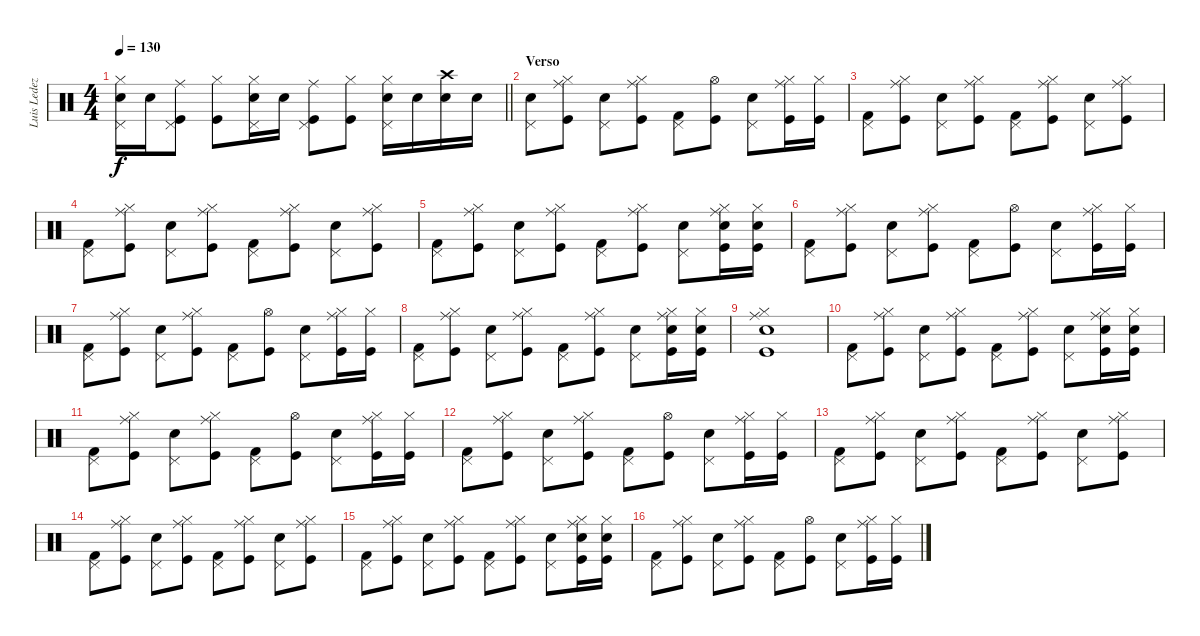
\track ("Luis Ledezma (bateria)" "Luis Ledez") {instrument percussion}
\staff {score}
\articulation defaults
\ts (4 4)
\tempo 130
\clef neutral
\barLineRight lightlight
\ks c
("Hi-Hat (closed)" "Pedal Hi-Hat (hit)" "Snare (hit) 2").16{dy f} "Snare (hit) 2".16 ("Ride (middle)" "Pedal Hi-Hat (hit)" "Kick (hit)").8 ("Hi-Hat (closed)" "Kick (hit)").8 ("Hi-Hat (closed)" "Pedal Hi-Hat (hit)" "Snare (hit) 2").16 "Snare (hit) 2".16 ("Ride (middle)" "Pedal Hi-Hat (hit)" "Kick (hit)").8 ("Hi-Hat (closed)" "Kick (hit)").8 ("Hi-Hat (closed)" "Pedal Hi-Hat (hit)" "Snare (hit) 2").16 "Snare (hit) 2".16 ("Crash high (hit)" "Snare (hit) 2").16 "Snare (hit) 2".16 |
\section ("" "Verso")
("Pedal Hi-Hat (hit)" "Snare (hit) 2").8 ("Ride (middle)" "Hi-Hat (closed)" "Kick (hit)").8 ("Pedal Hi-Hat (hit)" "Snare (hit) 2").8 ("Ride (middle)" "Hi-Hat (closed)" "Kick (hit)").8 ("Pedal Hi-Hat (hit)" "Kick (hit) 2").8 ("Hi-Hat (open)" "Kick (hit)").8 ("Pedal Hi-Hat (hit)" "Snare (hit) 2").8 ("Ride (middle)" "Hi-Hat (closed)" "Kick (hit)").16 ("Hi-Hat (closed)" "Kick (hit)").16 |
("Pedal Hi-Hat (hit)" "Kick (hit) 2").8 ("Ride (middle)" "Hi-Hat (closed)" "Kick (hit)").8 ("Pedal Hi-Hat (hit)" "Snare (hit) 2").8 ("Ride (middle)" "Hi-Hat (closed)" "Kick (hit)").8 ("Pedal Hi-Hat (hit)" "Kick (hit) 2").8 ("Ride (middle)" "Hi-Hat (closed)" "Kick (hit)").8 ("Pedal Hi-Hat (hit)" "Snare (hit) 2").8 ("Ride (middle)" "Hi-Hat (closed)" "Kick (hit)").8 |
("Pedal Hi-Hat (hit)" "Kick (hit) 2").8 ("Ride (middle)" "Hi-Hat (closed)" "Kick (hit)").8 ("Pedal Hi-Hat (hit)" "Snare (hit) 2").8 ("Ride (middle)" "Hi-Hat (closed)" "Kick (hit)").8 ("Pedal Hi-Hat (hit)" "Kick (hit) 2").8 ("Ride (middle)" "Hi-Hat (closed)" "Kick (hit)").8 ("Pedal Hi-Hat (hit)" "Snare (hit) 2").8 ("Ride (middle)" "Hi-Hat (closed)" "Kick (hit)").8 |
("Pedal Hi-Hat (hit)" "Kick (hit) 2").8 ("Ride (middle)" "Hi-Hat (closed)" "Kick (hit)").8 ("Pedal Hi-Hat (hit)" "Snare (hit) 2").8 ("Ride (middle)" "Hi-Hat (closed)" "Kick (hit)").8 ("Pedal Hi-Hat (hit)" "Kick (hit) 2").8 ("Ride (middle)" "Hi-Hat (closed)" "Kick (hit)").8 ("Pedal Hi-Hat (hit)" "Snare (hit) 2").8 ("Ride (middle)" "Hi-Hat (closed)" "Snare (hit) 2" "Kick (hit)").16 ("Hi-Hat (closed)" "Snare (hit) 2" "Kick (hit)").16 |
("Pedal Hi-Hat (hit)" "Kick (hit) 2").8 ("Ride (middle)" "Hi-Hat (closed)" "Kick (hit)").8 ("Pedal Hi-Hat (hit)" "Snare (hit) 2").8 ("Ride (middle)" "Hi-Hat (closed)" "Kick (hit)").8 ("Pedal Hi-Hat (hit)" "Kick (hit) 2").8 ("Hi-Hat (open)" "Kick (hit)").8 ("Pedal Hi-Hat (hit)" "Snare (hit) 2").8 ("Ride (middle)" "Hi-Hat (closed)" "Kick (hit)").16 ("Hi-Hat (closed)" "Kick (hit)").16 |
("Pedal Hi-Hat (hit)" "Kick (hit) 2").8 ("Ride (middle)" "Hi-Hat (closed)" "Kick (hit)").8 ("Pedal Hi-Hat (hit)" "Snare (hit) 2").8 ("Ride (middle)" "Hi-Hat (closed)" "Kick (hit)").8 ("Pedal Hi-Hat (hit)" "Kick (hit) 2").8 ("Hi-Hat (open)" "Kick (hit)").8 ("Pedal Hi-Hat (hit)" "Snare (hit) 2").8 ("Ride (middle)" "Hi-Hat (closed)" "Kick (hit)").16 ("Hi-Hat (closed)" "Kick (hit)").16 |
("Pedal Hi-Hat (hit)" "Kick (hit) 2").8 ("Ride (middle)" "Hi-Hat (closed)" "Kick (hit)").8 ("Pedal Hi-Hat (hit)" "Snare (hit) 2").8 ("Ride (middle)" "Hi-Hat (closed)" "Kick (hit)").8 ("Pedal Hi-Hat (hit)" "Kick (hit) 2").8 ("Ride (middle)" "Hi-Hat (closed)" "Kick (hit)").8 ("Pedal Hi-Hat (hit)" "Snare (hit) 2").8 ("Ride (middle)" "Hi-Hat (closed)" "Snare (hit) 2" "Kick (hit)").16 ("Hi-Hat (closed)" "Snare (hit) 2" "Kick (hit)").16 |
("Ride (middle)" "Hi-Hat (closed)" "Snare (hit) 2" "Kick (hit)").1 |
("Pedal Hi-Hat (hit)" "Kick (hit) 2").8 ("Ride (middle)" "Hi-Hat (closed)" "Kick (hit)").8 ("Pedal Hi-Hat (hit)" "Snare (hit) 2").8 ("Ride (middle)" "Hi-Hat (closed)" "Kick (hit)").8 ("Pedal Hi-Hat (hit)" "Kick (hit) 2").8 ("Ride (middle)" "Hi-Hat (closed)" "Kick (hit)").8 ("Pedal Hi-Hat (hit)" "Snare (hit) 2").8 ("Ride (middle)" "Hi-Hat (closed)" "Snare (hit) 2" "Kick (hit)").16 ("Hi-Hat (closed)" "Snare (hit) 2" "Kick (hit)").16 |
("Pedal Hi-Hat (hit)" "Kick (hit) 2").8 ("Ride (middle)" "Hi-Hat (closed)" "Kick (hit)").8 ("Pedal Hi-Hat (hit)" "Snare (hit) 2").8 ("Ride (middle)" "Hi-Hat (closed)" "Kick (hit)").8 ("Pedal Hi-Hat (hit)" "Kick (hit) 2").8 ("Hi-Hat (open)" "Kick (hit)").8 ("Pedal Hi-Hat (hit)" "Snare (hit) 2").8 ("Ride (middle)" "Hi-Hat (closed)" "Kick (hit)").16 ("Hi-Hat (closed)" "Kick (hit)").16 |
("Pedal Hi-Hat (hit)" "Kick (hit) 2").8 ("Ride (middle)" "Hi-Hat (closed)" "Kick (hit)").8 ("Pedal Hi-Hat (hit)" "Snare (hit) 2").8 ("Ride (middle)" "Hi-Hat (closed)" "Kick (hit)").8 ("Pedal Hi-Hat (hit)" "Kick (hit) 2").8 ("Hi-Hat (open)" "Kick (hit)").8 ("Pedal Hi-Hat (hit)" "Snare (hit) 2").8 ("Ride (middle)" "Hi-Hat (closed)" "Kick (hit)").16 ("Hi-Hat (closed)" "Kick (hit)").16 |
("Pedal Hi-Hat (hit)" "Kick (hit) 2").8 ("Ride (middle)" "Hi-Hat (closed)" "Kick (hit)").8 ("Pedal Hi-Hat (hit)" "Snare (hit) 2").8 ("Ride (middle)" "Hi-Hat (closed)" "Kick (hit)").8 ("Pedal Hi-Hat (hit)" "Kick (hit) 2").8 ("Ride (middle)" "Hi-Hat (closed)" "Kick (hit)").8 ("Pedal Hi-Hat (hit)" "Snare (hit) 2").8 ("Ride (middle)" "Hi-Hat (closed)" "Kick (hit)").8 |
("Pedal Hi-Hat (hit)" "Kick (hit) 2").8 ("Ride (middle)" "Hi-Hat (closed)" "Kick (hit)").8 ("Pedal Hi-Hat (hit)" "Snare (hit) 2").8 ("Ride (middle)" "Hi-Hat (closed)" "Kick (hit)").8 ("Pedal Hi-Hat (hit)" "Kick (hit) 2").8 ("Ride (middle)" "Hi-Hat (closed)" "Kick (hit)").8 ("Pedal Hi-Hat (hit)" "Snare (hit) 2").8 ("Ride (middle)" "Hi-Hat (closed)" "Kick (hit)").8 |
("Pedal Hi-Hat (hit)" "Kick (hit) 2").8 ("Ride (middle)" "Hi-Hat (closed)" "Kick (hit)").8 ("Pedal Hi-Hat (hit)" "Snare (hit) 2").8 ("Ride (middle)" "Hi-Hat (closed)" "Kick (hit)").8 ("Pedal Hi-Hat (hit)" "Kick (hit) 2").8 ("Ride (middle)" "Hi-Hat (closed)" "Kick (hit)").8 ("Pedal Hi-Hat (hit)" "Snare (hit) 2").8 ("Ride (middle)" "Hi-Hat (closed)" "Snare (hit) 2" "Kick (hit)").16 ("Hi-Hat (closed)" "Snare (hit) 2" "Kick (hit)").16 |
("Pedal Hi-Hat (hit)" "Kick (hit) 2").8 ("Ride (middle)" "Hi-Hat (closed)" "Kick (hit)").8 ("Pedal Hi-Hat (hit)" "Snare (hit) 2").8 ("Ride (middle)" "Hi-Hat (closed)" "Kick (hit)").8 ("Pedal Hi-Hat (hit)" "Kick (hit) 2").8 ("Hi-Hat (open)" "Kick (hit)").8 ("Pedal Hi-Hat (hit)" "Snare (hit) 2").8 ("Ride (middle)" "Hi-Hat (closed)" "Kick (hit)").16 ("Hi-Hat (closed)" "Kick (hit)").16
